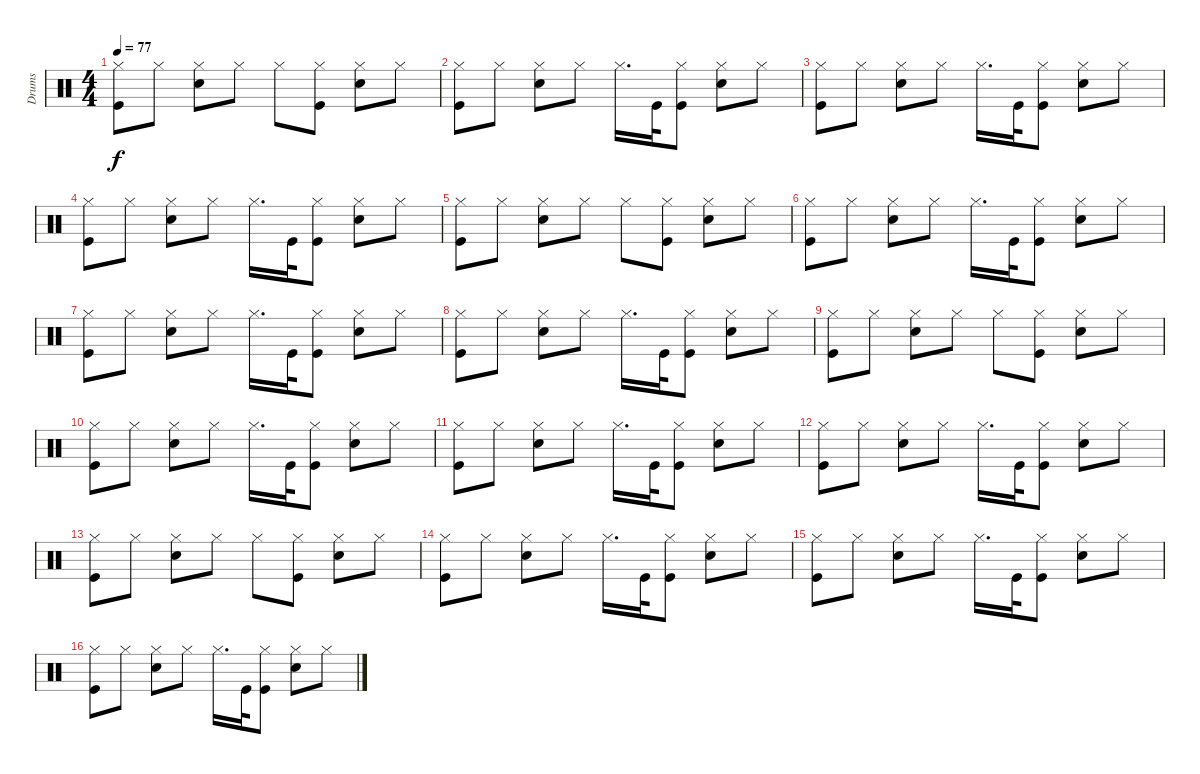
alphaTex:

\track ("Drums" "Drums") {instrument percussion}
\staff {score}
\articulation defaults
\ts (4 4)
\tempo 77
\clef neutral
\ks c
("Hi-Hat (closed)" "Kick (hit)").8{dy f} "Hi-Hat (closed)".8 ("Hi-Hat (closed)" "Snare (hit) 2").8 "Hi-Hat (closed)".8 "Hi-Hat (closed)".8 ("Hi-Hat (closed)" "Kick (hit)").8 ("Hi-Hat (closed)" "Snare (hit) 2").8 "Hi-Hat (closed)".8 |
("Hi-Hat (closed)" "Kick (hit)").8 "Hi-Hat (closed)".8 ("Hi-Hat (closed)" "Snare (hit) 2").8 "Hi-Hat (closed)".8 "Hi-Hat (closed)".16{d} "Kick (hit)".32 ("Hi-Hat (closed)" "Kick (hit)").8 ("Hi-Hat (closed)" "Snare (hit) 2").8 "Hi-Hat (closed)".8 |
("Hi-Hat (closed)" "Kick (hit)").8 "Hi-Hat (closed)".8 ("Hi-Hat (closed)" "Snare (hit) 2").8 "Hi-Hat (closed)".8 "Hi-Hat (closed)".16{d} "Kick (hit)".32 ("Hi-Hat (closed)" "Kick (hit)").8 ("Hi-Hat (closed)" "Snare (hit) 2").8 "Hi-Hat (closed)".8 |
("Hi-Hat (closed)" "Kick (hit)").8 "Hi-Hat (closed)".8 ("Hi-Hat (closed)" "Snare (hit) 2").8 "Hi-Hat (closed)".8 "Hi-Hat (closed)".16{d} "Kick (hit)".32 ("Hi-Hat (closed)" "Kick (hit)").8 ("Hi-Hat (closed)" "Snare (hit) 2").8 "Hi-Hat (closed)".8 |
("Hi-Hat (closed)" "Kick (hit)").8 "Hi-Hat (closed)".8 ("Hi-Hat (closed)" "Snare (hit) 2").8 "Hi-Hat (closed)".8 "Hi-Hat (closed)".8 ("Hi-Hat (closed)" "Kick (hit)").8 ("Hi-Hat (closed)" "Snare (hit) 2").8 "Hi-Hat (closed)".8 |
("Hi-Hat (closed)" "Kick (hit)").8 "Hi-Hat (closed)".8 ("Hi-Hat (closed)" "Snare (hit) 2").8 "Hi-Hat (closed)".8 "Hi-Hat (closed)".16{d} "Kick (hit)".32 ("Hi-Hat (closed)" "Kick (hit)").8 ("Hi-Hat (closed)" "Snare (hit) 2").8 "Hi-Hat (closed)".8 |
("Hi-Hat (closed)" "Kick (hit)").8 "Hi-Hat (closed)".8 ("Hi-Hat (closed)" "Snare (hit) 2").8 "Hi-Hat (closed)".8 "Hi-Hat (closed)".16{d} "Kick (hit)".32 ("Hi-Hat (closed)" "Kick (hit)").8 ("Hi-Hat (closed)" "Snare (hit) 2").8 "Hi-Hat (closed)".8 |
("Hi-Hat (closed)" "Kick (hit)").8 "Hi-Hat (closed)".8 ("Hi-Hat (closed)" "Snare (hit) 2").8 "Hi-Hat (closed)".8 "Hi-Hat (closed)".16{d} "Kick (hit)".32 ("Hi-Hat (closed)" "Kick (hit)").8 ("Hi-Hat (closed)" "Snare (hit) 2").8 "Hi-Hat (closed)".8 |
("Hi-Hat (closed)" "Kick (hit)").8 "Hi-Hat (closed)".8 ("Hi-Hat (closed)" "Snare (hit) 2").8 "Hi-Hat (closed)".8 "Hi-Hat (closed)".8 ("Hi-Hat (closed)" "Kick (hit)").8 ("Hi-Hat (closed)" "Snare (hit) 2").8 "Hi-Hat (closed)".8 |
("Hi-Hat (closed)" "Kick (hit)").8 "Hi-Hat (closed)".8 ("Hi-Hat (closed)" "Snare (hit) 2").8 "Hi-Hat (closed)".8 "Hi-Hat (closed)".16{d} "Kick (hit)".32 ("Hi-Hat (closed)" "Kick (hit)").8 ("Hi-Hat (closed)" "Snare (hit) 2").8 "Hi-Hat (closed)".8 |
("Hi-Hat (closed)" "Kick (hit)").8 "Hi-Hat (closed)".8 ("Hi-Hat (closed)" "Snare (hit) 2").8 "Hi-Hat (closed)".8 "Hi-Hat (closed)".16{d} "Kick (hit)".32 ("Hi-Hat (closed)" "Kick (hit)").8 ("Hi-Hat (closed)" "Snare (hit) 2").8 "Hi-Hat (closed)".8 |
("Hi-Hat (closed)" "Kick (hit)").8 "Hi-Hat (closed)".8 ("Hi-Hat (closed)" "Snare (hit) 2").8 "Hi-Hat (closed)".8 "Hi-Hat (closed)".16{d} "Kick (hit)".32 ("Hi-Hat (closed)" "Kick (hit)").8 ("Hi-Hat (closed)" "Snare (hit) 2").8 "Hi-Hat (closed)".8 |
("Hi-Hat (closed)" "Kick (hit)").8 "Hi-Hat (closed)".8 ("Hi-Hat (closed)" "Snare (hit) 2").8 "Hi-Hat (closed)".8 "Hi-Hat (closed)".8 ("Hi-Hat (closed)" "Kick (hit)").8 ("Hi-Hat (closed)" "Snare (hit) 2").8 "Hi-Hat (closed)".8 |
("Hi-Hat (closed)" "Kick (hit)").8 "Hi-Hat (closed)".8 ("Hi-Hat (closed)" "Snare (hit) 2").8 "Hi-Hat (closed)".8 "Hi-Hat (closed)".16{d} "Kick (hit)".32 ("Hi-Hat (closed)" "Kick (hit)").8 ("Hi-Hat (closed)" "Snare (hit) 2").8 "Hi-Hat (closed)".8 |
("Hi-Hat (closed)" "Kick (hit)").8 "Hi-Hat (closed)".8 ("Hi-Hat (closed)" "Snare (hit) 2").8 "Hi-Hat (closed)".8 "Hi-Hat (closed)".16{d} "Kick (hit)".32 ("Hi-Hat (closed)" "Kick (hit)").8 ("Hi-Hat (closed)" "Snare (hit) 2").8 "Hi-Hat (closed)".8 |
("Hi-Hat (closed)" "Kick (hit)").8 "Hi-Hat (closed)".8 ("Hi-Hat (closed)" "Snare (hit) 2").8 "Hi-Hat (closed)".8 "Hi-Hat (closed)".16{d} "Kick (hit)".32 ("Hi-Hat (closed)" "Kick (hit)").8 ("Hi-Hat (closed)" "Snare (hit) 2").8 "Hi-Hat (closed)".8
